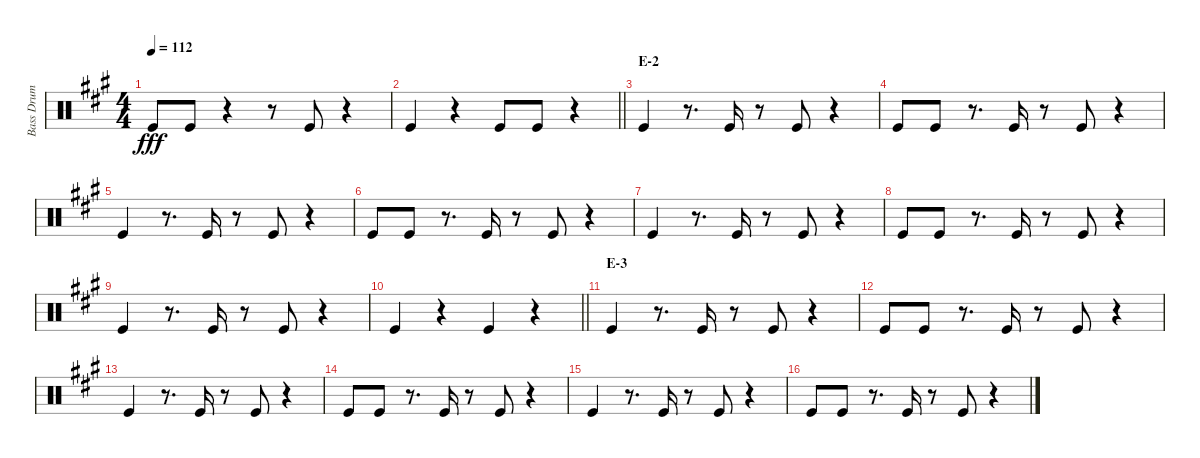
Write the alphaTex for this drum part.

\track ("Bass Drum" "Bass Drum") {instrument percussion}
\staff {score}
\articulation defaults
\ts (4 4)
\tempo 112
\clef neutral
\ks a "Kick (hit)".8{dy fff} "Kick (hit)".8
r.4 r.8 "Kick (hit)".8 r.4 |
\barLineRight lightlight "Kick (hit)".4
r.4 "Kick (hit)".8 "Kick (hit)".8 r.4 |
\section ("" "E-2")
"Kick (hit)".4 r.8{d} "Kick (hit)".16 r.8 "Kick (hit)".8 r.4 |
"Kick (hit)".8 "Kick (hit)".8 r.8{d} "Kick (hit)".16 r.8 "Kick (hit)".8 r.4 |
"Kick (hit)".4 r.8{d} "Kick (hit)".16 r.8 "Kick (hit)".8 r.4 |
"Kick (hit)".8 "Kick (hit)".8 r.8{d} "Kick (hit)".16 r.8 "Kick (hit)".8 r.4 |
"Kick (hit)".4 r.8{d} "Kick (hit)".16 r.8 "Kick (hit)".8 r.4 |
"Kick (hit)".8 "Kick (hit)".8 r.8{d} "Kick (hit)".16 r.8 "Kick (hit)".8 r.4 |
"Kick (hit)".4 r.8{d} "Kick (hit)".16 r.8 "Kick (hit)".8 r.4 |
\barLineRight lightlight "Kick (hit)".4
r.4 "Kick (hit)".4 r.4 |
\section ("" "E-3")
"Kick (hit)".4 r.8{d} "Kick (hit)".16 r.8 "Kick (hit)".8 r.4 |
"Kick (hit)".8 "Kick (hit)".8 r.8{d} "Kick (hit)".16 r.8 "Kick (hit)".8 r.4 |
"Kick (hit)".4 r.8{d} "Kick (hit)".16 r.8 "Kick (hit)".8 r.4 |
"Kick (hit)".8 "Kick (hit)".8 r.8{d} "Kick (hit)".16 r.8 "Kick (hit)".8 r.4 |
"Kick (hit)".4 r.8{d} "Kick (hit)".16 r.8 "Kick (hit)".8 r.4 |
"Kick (hit)".8 "Kick (hit)".8 r.8{d} "Kick (hit)".16 r.8 "Kick (hit)".8 r.4
